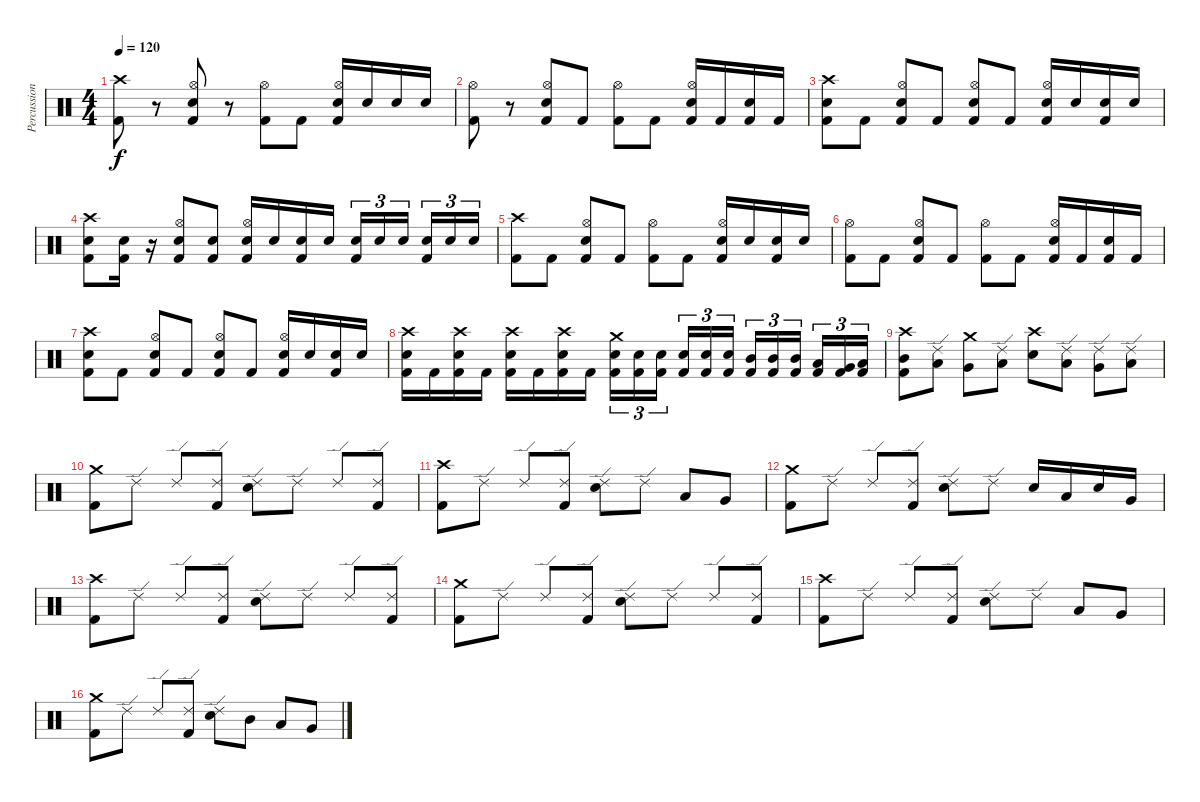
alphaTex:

\track ("Percussion" "Percussion") {instrument percussion}
\staff {score}
\articulation defaults
\ts (4 4)
\tempo 120
\clef neutral
\ks c
("Crash high (hit)" "Kick (hit) 2").8{dy f} r.8 ("Hi-Hat (open)" "Electric Snare (hit)" "Kick (hit) 2").8 r.8 ("Hi-Hat (open)" "Kick (hit) 2").8 "Kick (hit) 2".8 ("Hi-Hat (open)" "Electric Snare (hit)" "Kick (hit) 2").16 "Electric Snare (hit)".16 "Electric Snare (hit)".16 "Electric Snare (hit)".16 |
("Hi-Hat (open)" "Kick (hit) 2").8 r.8 ("Hi-Hat (open)" "Electric Snare (hit)" "Kick (hit) 2").8 "Kick (hit) 2".8 ("Hi-Hat (open)" "Kick (hit) 2").8 "Kick (hit) 2".8 ("Hi-Hat (open)" "Electric Snare (hit)" "Kick (hit) 2").16 "Kick (hit) 2".16 ("Electric Snare (hit)" "Kick (hit) 2").16 "Kick (hit) 2".16 |
("Crash high (hit)" "Electric Snare (hit)" "Kick (hit) 2").8 "Kick (hit) 2".8 ("Hi-Hat (open)" "Electric Snare (hit)" "Kick (hit) 2").8 "Kick (hit) 2".8 ("Hi-Hat (open)" "Electric Snare (hit)" "Kick (hit) 2").8 "Kick (hit) 2".8 ("Hi-Hat (open)" "Electric Snare (hit)" "Kick (hit) 2").16 "Electric Snare (hit)".16 ("Electric Snare (hit)" "Kick (hit) 2").16 "Electric Snare (hit)".16 |
("Crash high (hit)" "Electric Snare (hit)" "Kick (hit) 2").8 ("Electric Snare (hit)" "Kick (hit) 2").16 r.16 ("Hi-Hat (open)" "Electric Snare (hit)" "Kick (hit) 2").8 ("Electric Snare (hit)" "Kick (hit) 2").8 ("Hi-Hat (open)" "Electric Snare (hit)" "Kick (hit) 2").16 "Electric Snare (hit)".16 ("Electric Snare (hit)" "Kick (hit) 2").16 "Electric Snare (hit)".16 ("Electric Snare (hit)" "Kick (hit) 2").16{tu (3 2)} "Electric Snare (hit)".16{tu (3 2)} "Electric Snare (hit)".16{tu (3 2) beam splitsecondary} ("Electric Snare (hit)" "Kick (hit) 2").16{tu (3 2)} "Electric Snare (hit)".16{tu (3 2)} "Electric Snare (hit)".16{tu (3 2)} |
("Crash high (hit)" "Kick (hit) 2").8 "Kick (hit) 2".8 ("Hi-Hat (open)" "Electric Snare (hit)" "Kick (hit) 2").8 "Kick (hit) 2".8 ("Hi-Hat (open)" "Kick (hit) 2").8 "Kick (hit) 2".8 ("Hi-Hat (open)" "Electric Snare (hit)" "Kick (hit) 2").16 "Electric Snare (hit)".16 ("Electric Snare (hit)" "Kick (hit) 2").16 "Electric Snare (hit)".16 |
("Hi-Hat (open)" "Kick (hit) 2").8 "Kick (hit) 2".8 ("Hi-Hat (open)" "Electric Snare (hit)" "Kick (hit) 2").8 "Kick (hit) 2".8 ("Hi-Hat (open)" "Kick (hit) 2").8 "Kick (hit) 2".8 ("Hi-Hat (open)" "Electric Snare (hit)" "Kick (hit) 2").16 "Kick (hit) 2".16 ("Electric Snare (hit)" "Kick (hit) 2").16 "Kick (hit) 2".16 |
("Crash high (hit)" "Electric Snare (hit)" "Kick (hit) 2").8 "Kick (hit) 2".8 ("Hi-Hat (open)" "Electric Snare (hit)" "Kick (hit) 2").8 "Kick (hit) 2".8 ("Hi-Hat (open)" "Electric Snare (hit)" "Kick (hit) 2").8 "Kick (hit) 2".8 ("Hi-Hat (open)" "Electric Snare (hit)" "Kick (hit) 2").16 "Electric Snare (hit)".16 ("Electric Snare (hit)" "Kick (hit) 2").16 "Electric Snare (hit)".16 |
("Crash high (hit)" "Electric Snare (hit)" "Kick (hit) 2").16 "Kick (hit) 2".16 ("Crash high (hit)" "Electric Snare (hit)" "Kick (hit) 2").16 "Kick (hit) 2".16 ("Crash high (hit)" "Electric Snare (hit)" "Kick (hit) 2").16 "Kick (hit) 2".16 ("Crash high (hit)" "Electric Snare (hit)" "Kick (hit) 2").16 "Kick (hit) 2".16 ("Crash medium (hit)" "Electric Snare (hit)" "Kick (hit) 2").16{tu (3 2)} ("Electric Snare (hit)" "Kick (hit) 2").16{tu (3 2)} ("Electric Snare (hit)" "Kick (hit) 2").16{tu (3 2) beam splitsecondary} ("Electric Snare (hit)" "Kick (hit) 2").16{tu (3 2)} ("Electric Snare (hit)" "Kick (hit) 2").16{tu (3 2)} ("Electric Snare (hit)" "Kick (hit) 2").16{tu (3 2)} ("Mid Tom (hit)" "Kick (hit) 2").16{tu (3 2)} ("Mid Tom (hit)" "Kick (hit) 2").16{tu (3 2)} ("Mid Tom (hit)" "Kick (hit) 2").16{tu (3 2) beam splitsecondary} ("Low Tom (hit)" "Kick (hit) 2").16{tu (3 2)} ("Very Low Tom (hit)" "Kick (hit) 2").16{tu (3 2)} ("Low Floor Tom (hit)" "Kick (hit) 2").16{tu (3 2)} |
("Crash high (hit)" "Mid Tom (hit)" "Kick (hit) 2").8 ("Ride (edge) 2" "Low Tom (hit)").8 ("Crash medium (hit)" "Very Low Tom (hit)").8 ("Ride (edge) 2" "Low Floor Tom (hit)").8 ("Crash high (hit)" "Electric Snare (hit)").8 ("Ride (edge) 2" "Low Tom (hit)").8 ("Ride (edge) 2" "Very Low Tom (hit)").8 ("Ride (edge) 2" "Low Floor Tom (hit)").8 |
("Crash medium (hit)" "Kick (hit) 2").8 "Ride (edge) 2".8 "Ride (edge) 2".8 ("Ride (edge) 2" "Kick (hit) 2").8 ("Ride (edge) 2" "Electric Snare (hit)").8 "Ride (edge) 2".8 "Ride (edge) 2".8 ("Ride (edge) 2" "Kick (hit) 2").8 |
("Crash high (hit)" "Kick (hit) 2").8 "Ride (edge) 2".8 "Ride (edge) 2".8 ("Ride (edge) 2" "Kick (hit) 2").8 ("Ride (edge) 2" "Electric Snare (hit)").8 "Ride (edge) 2".8 "Low Tom (hit)".8 "Very Low Tom (hit)".8 |
("Crash medium (hit)" "Kick (hit) 2").8 "Ride (edge) 2".8 "Ride (edge) 2".8 ("Ride (edge) 2" "Kick (hit) 2").8 ("Ride (edge) 2" "Electric Snare (hit)").8 "Ride (edge) 2".8 "Electric Snare (hit)".16 "Low Tom (hit)".16 "Electric Snare (hit)".16 "Very Low Tom (hit)".16 |
("Crash high (hit)" "Kick (hit) 2").8 "Ride (edge) 2".8 "Ride (edge) 2".8 ("Ride (edge) 2" "Kick (hit) 2").8 ("Ride (edge) 2" "Electric Snare (hit)").8 "Ride (edge) 2".8 "Ride (edge) 2".8 ("Ride (edge) 2" "Kick (hit) 2").8 |
("Crash medium (hit)" "Kick (hit) 2").8 "Ride (edge) 2".8 "Ride (edge) 2".8 ("Ride (edge) 2" "Kick (hit) 2").8 ("Ride (edge) 2" "Electric Snare (hit)").8 "Ride (edge) 2".8 "Ride (edge) 2".8 ("Ride (edge) 2" "Kick (hit) 2").8 |
("Crash high (hit)" "Kick (hit) 2").8 "Ride (edge) 2".8 "Ride (edge) 2".8 ("Ride (edge) 2" "Kick (hit) 2").8 ("Ride (edge) 2" "Electric Snare (hit)").8 "Ride (edge) 2".8 "Low Tom (hit)".8 "Very Low Tom (hit)".8 |
("Crash medium (hit)" "Kick (hit) 2").8 "Ride (edge) 2".8 "Ride (edge) 2".8 ("Ride (edge) 2" "Kick (hit) 2").8 ("Ride (edge) 2" "Electric Snare (hit)").8 "Mid Tom (hit)".8 "Low Tom (hit)".8 "Very Low Tom (hit)".8
